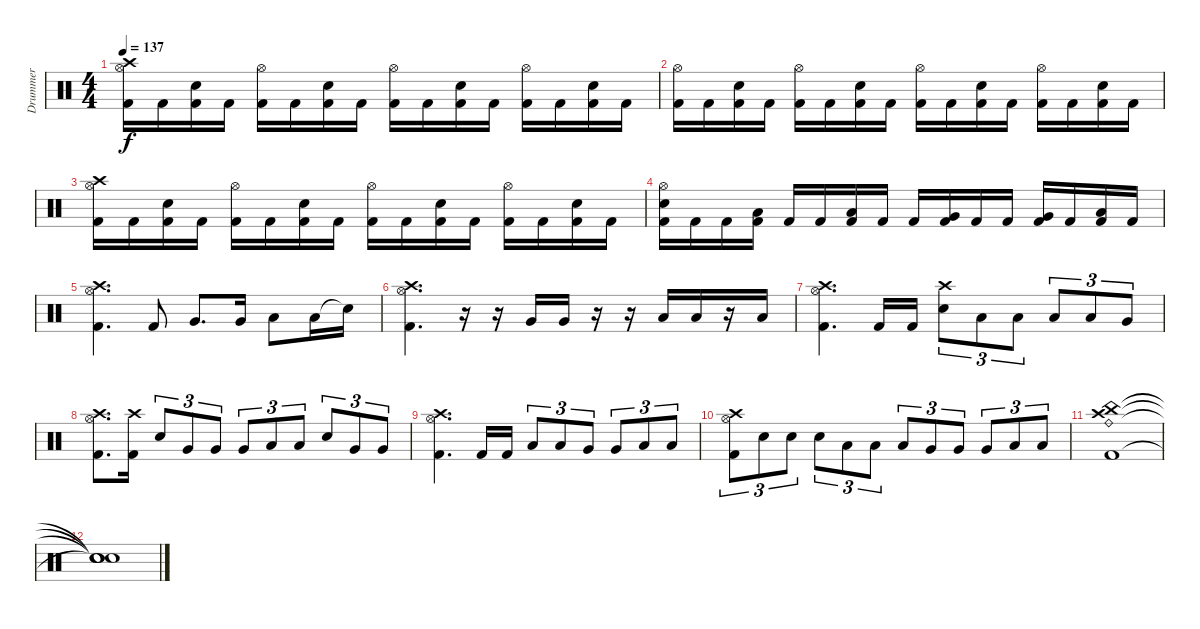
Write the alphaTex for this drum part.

\track ("Drummer" "Drummer") {instrument percussion}
\staff {score}
\articulation defaults
\ts (4 4)
\tempo 137
\clef neutral
\ks c
("Crash high (hit)" "Hi-Hat (open)" "Kick (hit) 2").16{dy f} "Kick (hit) 2".16 ("Electric Snare (hit)" "Kick (hit) 2").16 "Kick (hit) 2".16 ("Hi-Hat (open)" "Kick (hit) 2").16 "Kick (hit) 2".16 ("Electric Snare (hit)" "Kick (hit) 2").16 "Kick (hit) 2".16 ("Hi-Hat (open)" "Kick (hit) 2").16 "Kick (hit) 2".16 ("Electric Snare (hit)" "Kick (hit) 2").16 "Kick (hit) 2".16 ("Hi-Hat (open)" "Kick (hit) 2").16 "Kick (hit) 2".16 ("Electric Snare (hit)" "Kick (hit) 2").16 "Kick (hit) 2".16 |
("Hi-Hat (open)" "Kick (hit) 2").16 "Kick (hit) 2".16 ("Electric Snare (hit)" "Kick (hit) 2").16 "Kick (hit) 2".16 ("Hi-Hat (open)" "Kick (hit) 2").16 "Kick (hit) 2".16 ("Electric Snare (hit)" "Kick (hit) 2").16 "Kick (hit) 2".16 ("Hi-Hat (open)" "Kick (hit) 2").16 "Kick (hit) 2".16 ("Electric Snare (hit)" "Kick (hit) 2").16 "Kick (hit) 2".16 ("Hi-Hat (open)" "Kick (hit) 2").16 "Kick (hit) 2".16 ("Electric Snare (hit)" "Kick (hit) 2").16 "Kick (hit) 2".16 |
("Crash high (hit)" "Hi-Hat (open)" "Kick (hit) 2").16 "Kick (hit) 2".16 ("Electric Snare (hit)" "Kick (hit) 2").16 "Kick (hit) 2".16 ("Hi-Hat (open)" "Kick (hit) 2").16 "Kick (hit) 2".16 ("Electric Snare (hit)" "Kick (hit) 2").16 "Kick (hit) 2".16 ("Hi-Hat (open)" "Kick (hit) 2").16 "Kick (hit) 2".16 ("Electric Snare (hit)" "Kick (hit) 2").16 "Kick (hit) 2".16 ("Hi-Hat (open)" "Kick (hit) 2").16 "Kick (hit) 2".16 ("Electric Snare (hit)" "Kick (hit) 2").16 "Kick (hit) 2".16 |
("Electric Snare (hit)" "Hi-Hat (open)" "Kick (hit) 2").16 "Kick (hit) 2".16 "Kick (hit) 2".16 ("Low Tom (hit)" "Kick (hit) 2").16 "Kick (hit) 2".16 "Kick (hit) 2".16 ("Low Tom (hit)" "Kick (hit) 2").16 "Kick (hit) 2".16 "Kick (hit) 2".16 ("Very Low Tom (hit)" "Kick (hit) 2").16 "Kick (hit) 2".16 "Kick (hit) 2".16 ("Very Low Tom (hit)" "Kick (hit) 2").16 "Kick (hit) 2".16 ("Low Floor Tom (hit)" "Kick (hit) 2").16 "Kick (hit) 2".16 |
("Crash high (hit)" "Hi-Hat (open)" "Kick (hit) 2").4{d} "Kick (hit) 2".8 "Very Low Tom (hit)".8{d} "Very Low Tom (hit)".16 "Low Floor Tom (hit)".8 "Low Floor Tom (hit)".16 "Snare (hit)"{t}.16 |
("Crash high (hit)" "Hi-Hat (open)" "Kick (hit) 2").4{d} r.16 r.16 "Very Low Tom (hit)".16 "Very Low Tom (hit)".16 r.16 r.16 "Low Floor Tom (hit)".16 "Low Floor Tom (hit)".16 r.16 "Low Floor Tom (hit)".16 |
("Crash high (hit)" "Hi-Hat (open)" "Kick (hit) 2").4{d} "Kick (hit) 2".16 "Kick (hit) 2".16 ("Electric Snare (hit)" "Crash high (hit)").8{tu (3 2)} "Low Tom (hit)".8{tu (3 2)} "Low Tom (hit)".8{tu (3 2)} "Low Tom (hit)".8{tu (3 2)} "Low Tom (hit)".8{tu (3 2)} "Very Low Tom (hit)".8{tu (3 2)} |
("Crash high (hit)" "Hi-Hat (open)" "Kick (hit) 2").8{d} ("Kick (hit) 2" "Crash high (hit)").16 "Electric Snare (hit)".8{tu (3 2)} "Very Low Tom (hit)".8{tu (3 2)} "Very Low Tom (hit)".8{tu (3 2)} "Very Low Tom (hit)".8{tu (3 2)} "Low Floor Tom (hit)".8{tu (3 2)} "Low Floor Tom (hit)".8{tu (3 2)} "Electric Snare (hit)".8{tu (3 2)} "Very Low Tom (hit)".8{tu (3 2)} "Very Low Tom (hit)".8{tu (3 2)} |
("Crash high (hit)" "Hi-Hat (open)" "Kick (hit) 2").4{d} "Kick (hit) 2".16 "Kick (hit) 2".16 "Low Tom (hit)".8{tu (3 2)} "Low Tom (hit)".8{tu (3 2)} "Very Low Tom (hit)".8{tu (3 2)} "Very Low Tom (hit)".8{tu (3 2)} "Low Floor Tom (hit)".8{tu (3 2)} "Low Floor Tom (hit)".8{tu (3 2)} |
("Crash high (hit)" "Hi-Hat (open)" "Kick (hit) 2").8{tu (3 2)} "Electric Snare (hit)".8{tu (3 2)} "Electric Snare (hit)".8{tu (3 2)} "Electric Snare (hit)".8{tu (3 2)} "Low Tom (hit)".8{tu (3 2)} "Low Tom (hit)".8{tu (3 2)} "Low Tom (hit)".8{tu (3 2)} "Very Low Tom (hit)".8{tu (3 2)} "Very Low Tom (hit)".8{tu (3 2)} "Very Low Tom (hit)".8{tu (3 2)} "Low Floor Tom (hit)".8{tu (3 2)} "Low Floor Tom (hit)".8{tu (3 2)} |
("Crash high (hit)" "Kick (hit) 2" "Ride (bell)" "China (hit)").1 |
("Snare (hit)"{t} "Snare (hit)"{t} "Snare (hit)"{t} "Snare (hit)"{t}).1
